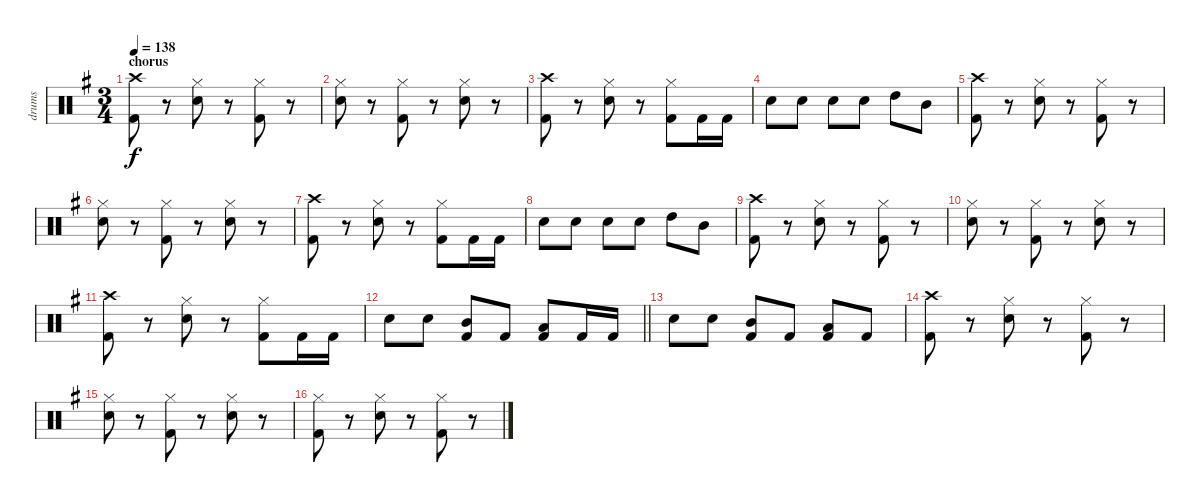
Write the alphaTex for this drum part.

\track ("drums" "drums") {instrument percussion}
\staff {score}
\articulation defaults
\ts (3 4)
\section ("" "chorus")
\tempo 138
\clef neutral
\ks eminor
("Crash high (hit)" "Kick (hit) 2").8{dy f} r.8 ("Hi-Hat (closed)" "Snare (hit) 2").8 r.8 ("Hi-Hat (closed)" "Kick (hit) 2").8 r.8 |
("Hi-Hat (closed)" "Snare (hit) 2").8 r.8 ("Hi-Hat (closed)" "Kick (hit) 2").8 r.8 ("Hi-Hat (closed)" "Snare (hit) 2").8 r.8 |
("Crash high (hit)" "Kick (hit) 2").8 r.8 ("Hi-Hat (closed)" "Snare (hit) 2").8 r.8 ("Hi-Hat (closed)" "Kick (hit) 2").8 "Kick (hit) 2".16 "Kick (hit) 2".16 |
"Snare (hit) 2".8 "Snare (hit) 2".8 "Snare (hit) 2".8 "Snare (hit) 2".8 "High Tom (hit)".8 "Mid Tom (hit)".8 |
("Crash high (hit)" "Kick (hit) 2").8 r.8 ("Hi-Hat (closed)" "Snare (hit) 2").8 r.8 ("Hi-Hat (closed)" "Kick (hit) 2").8 r.8 |
("Hi-Hat (closed)" "Snare (hit) 2").8 r.8 ("Hi-Hat (closed)" "Kick (hit) 2").8 r.8 ("Hi-Hat (closed)" "Snare (hit) 2").8 r.8 |
("Crash high (hit)" "Kick (hit) 2").8 r.8 ("Hi-Hat (closed)" "Snare (hit) 2").8 r.8 ("Hi-Hat (closed)" "Kick (hit) 2").8 "Kick (hit) 2".16 "Kick (hit) 2".16 |
"Snare (hit) 2".8 "Snare (hit) 2".8 "Snare (hit) 2".8 "Snare (hit) 2".8 "High Tom (hit)".8 "Mid Tom (hit)".8 |
("Crash high (hit)" "Kick (hit) 2").8 r.8 ("Hi-Hat (closed)" "Snare (hit) 2").8 r.8 ("Hi-Hat (closed)" "Kick (hit) 2").8 r.8 |
("Hi-Hat (closed)" "Snare (hit) 2").8 r.8 ("Hi-Hat (closed)" "Kick (hit) 2").8 r.8 ("Hi-Hat (closed)" "Snare (hit) 2").8 r.8 |
("Crash high (hit)" "Kick (hit) 2").8 r.8 ("Hi-Hat (closed)" "Snare (hit) 2").8 r.8 ("Hi-Hat (closed)" "Kick (hit) 2").8 "Kick (hit) 2".16 "Kick (hit) 2".16 |
\barLineRight lightlight "Snare (hit) 2".8 "Snare (hit) 2".8
("Mid Tom (hit)" "Kick (hit) 2").8 "Kick (hit) 2".8 ("Low Tom (hit)" "Kick (hit) 2").8 "Kick (hit) 2".16 "Kick (hit) 2".16 |
"Snare (hit) 2".8 "Snare (hit) 2".8 ("Mid Tom (hit)" "Kick (hit) 2").8 "Kick (hit) 2".8 ("Low Tom (hit)" "Kick (hit) 2").8 "Kick (hit) 2".8 |
("Crash high (hit)" "Kick (hit) 2").8 r.8 ("Hi-Hat (closed)" "Snare (hit) 2").8 r.8 ("Hi-Hat (closed)" "Kick (hit) 2").8 r.8 |
("Hi-Hat (closed)" "Snare (hit) 2").8 r.8 ("Hi-Hat (closed)" "Kick (hit) 2").8 r.8 ("Hi-Hat (closed)" "Snare (hit) 2").8 r.8 |
("Hi-Hat (closed)" "Kick (hit) 2").8 r.8 ("Hi-Hat (closed)" "Snare (hit) 2").8 r.8 ("Hi-Hat (closed)" "Kick (hit) 2").8 r.8
